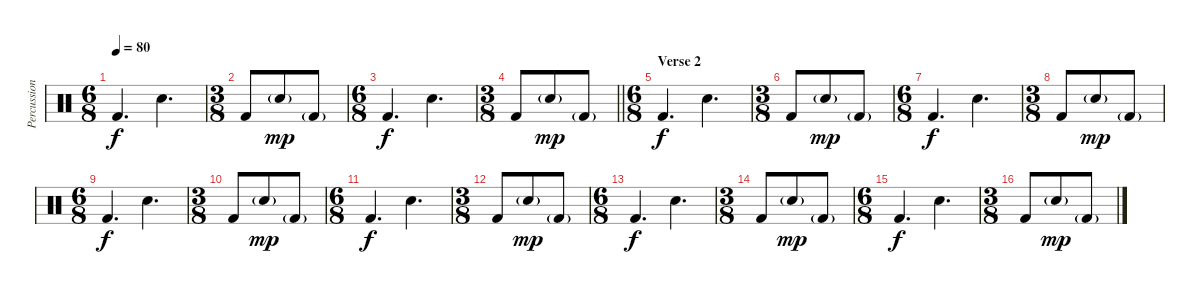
\track ("Percussion" "Percussion") {instrument percussion}
\staff {score}
\articulation defaults
\ts (6 8)
\tempo 80
\clef neutral
\ks c "Kick (hit) 2".4{d dy f} "Snare (hit) 2".4{d}
|
\ts (3 8)
"Kick (hit) 2".8 "Snare (hit) 2"{g}.8{dy mp} "Kick (hit) 2"{g}.8 |
\ts (6 8)
"Kick (hit) 2".4{d dy f} "Snare (hit) 2".4{d} |
\ts (3 8)
\barLineRight lightlight "Kick (hit) 2".8 "Snare (hit) 2"{g}.8{dy mp} "Kick (hit) 2"{g}.8
|
\ts (6 8)
\section ("" "Verse 2")
"Kick (hit) 2".4{d dy f} "Snare (hit) 2".4{d} |
\ts (3 8)
"Kick (hit) 2".8 "Snare (hit) 2"{g}.8{dy mp} "Kick (hit) 2"{g}.8 |
\ts (6 8)
"Kick (hit) 2".4{d dy f} "Snare (hit) 2".4{d} |
\ts (3 8)
"Kick (hit) 2".8 "Snare (hit) 2"{g}.8{dy mp} "Kick (hit) 2"{g}.8 |
\ts (6 8)
"Kick (hit) 2".4{d dy f} "Snare (hit) 2".4{d} |
\ts (3 8)
"Kick (hit) 2".8 "Snare (hit) 2"{g}.8{dy mp} "Kick (hit) 2"{g}.8 |
\ts (6 8)
"Kick (hit) 2".4{d dy f} "Snare (hit) 2".4{d} |
\ts (3 8)
"Kick (hit) 2".8 "Snare (hit) 2"{g}.8{dy mp} "Kick (hit) 2"{g}.8 |
\ts (6 8)
"Kick (hit) 2".4{d dy f} "Snare (hit) 2".4{d} |
\ts (3 8)
"Kick (hit) 2".8 "Snare (hit) 2"{g}.8{dy mp} "Kick (hit) 2"{g}.8 |
\ts (6 8)
"Kick (hit) 2".4{d dy f} "Snare (hit) 2".4{d} |
\ts (3 8)
"Kick (hit) 2".8 "Snare (hit) 2"{g}.8{dy mp} "Kick (hit) 2"{g}.8
